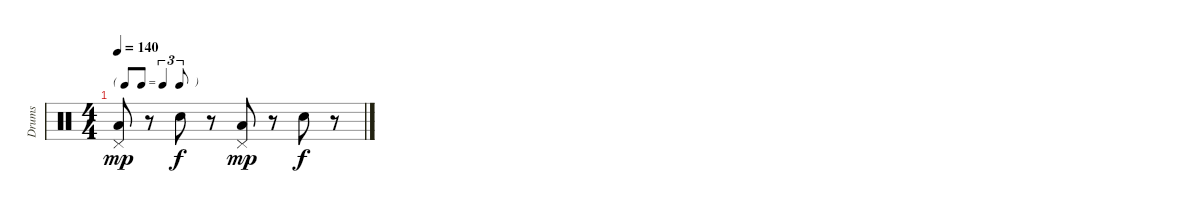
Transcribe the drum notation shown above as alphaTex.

\track ("Drums" "Drums") {instrument percussion}
\staff {score}
\articulation defaults
\ts (4 4)
\tf triplet8th
\tempo 140
\clef neutral
\ks c
("Pedal Hi-Hat (hit)" "Low Floor Tom (hit)").8{dy mp} r.8 "Snare (hit) 2".8{dy f} r.8 ("Pedal Hi-Hat (hit)" "Low Floor Tom (hit)").8{dy mp} r.8 "Snare (hit) 2".8{dy f} r.8
